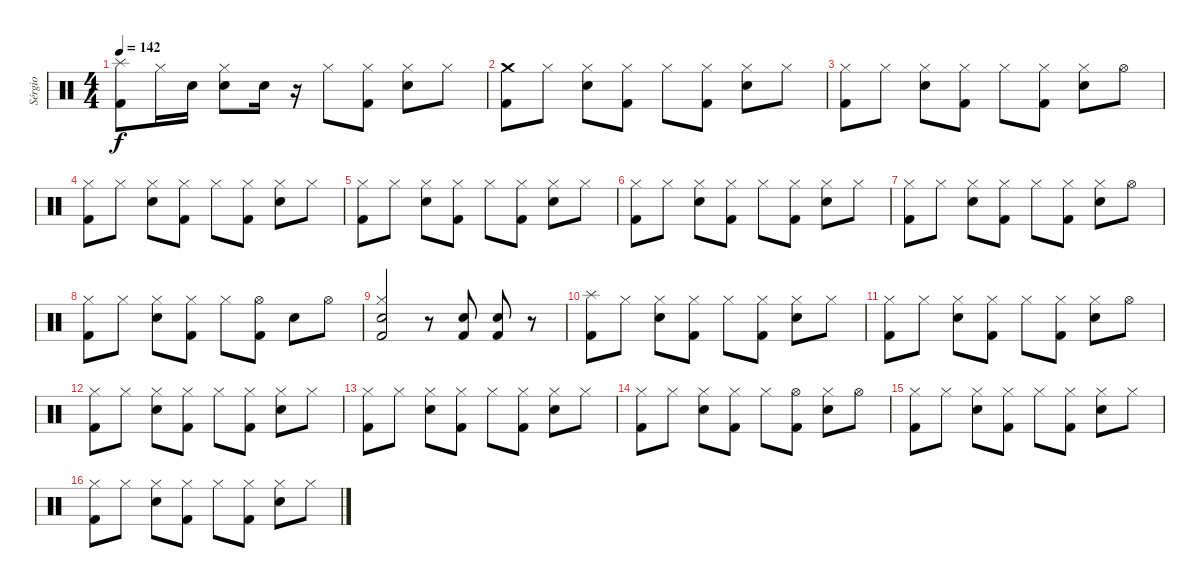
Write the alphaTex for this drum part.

\track ("Sérgio" "Sérgio") {instrument percussion}
\staff {score}
\articulation defaults
\ts (4 4)
\tempo 142
\clef neutral
\ks c
("Splash (hit)" "Kick (hit) 2").8{dy f} "Hi-Hat (closed)".16 "Snare (hit) 2".16 ("Hi-Hat (closed)" "Snare (hit) 2").8 "Snare (hit) 2".16 r.16 "Hi-Hat (closed)".8 ("Hi-Hat (closed)" "Kick (hit) 2").8 ("Hi-Hat (closed)" "Snare (hit) 2").8 "Hi-Hat (closed)".8 |
("Crash medium (hit)" "Kick (hit) 2").8 "Hi-Hat (closed)".8 ("Hi-Hat (closed)" "Snare (hit) 2").8 ("Hi-Hat (closed)" "Kick (hit) 2").8 "Hi-Hat (closed)".8 ("Hi-Hat (closed)" "Kick (hit) 2").8 ("Hi-Hat (closed)" "Snare (hit) 2").8 "Hi-Hat (closed)".8 |
("Hi-Hat (closed)" "Kick (hit) 2").8 "Hi-Hat (closed)".8 ("Hi-Hat (closed)" "Snare (hit) 2").8 ("Hi-Hat (closed)" "Kick (hit) 2").8 "Hi-Hat (closed)".8 ("Hi-Hat (closed)" "Kick (hit) 2").8 ("Hi-Hat (closed)" "Snare (hit) 2").8 "Hi-Hat (open)".8 |
("Hi-Hat (closed)" "Kick (hit) 2").8 "Hi-Hat (closed)".8 ("Hi-Hat (closed)" "Snare (hit) 2").8 ("Hi-Hat (closed)" "Kick (hit) 2").8 "Hi-Hat (closed)".8 ("Hi-Hat (closed)" "Kick (hit) 2").8 ("Hi-Hat (closed)" "Snare (hit) 2").8 "Hi-Hat (closed)".8 |
("Hi-Hat (closed)" "Kick (hit) 2").8 "Hi-Hat (closed)".8 ("Hi-Hat (closed)" "Snare (hit) 2").8 ("Hi-Hat (closed)" "Kick (hit) 2").8 "Hi-Hat (closed)".8 ("Hi-Hat (closed)" "Kick (hit) 2").8 ("Hi-Hat (closed)" "Snare (hit) 2").8 "Hi-Hat (closed)".8 |
("Hi-Hat (closed)" "Kick (hit) 2").8 "Hi-Hat (closed)".8 ("Hi-Hat (closed)" "Snare (hit) 2").8 ("Hi-Hat (closed)" "Kick (hit) 2").8 "Hi-Hat (closed)".8 ("Hi-Hat (closed)" "Kick (hit) 2").8 ("Hi-Hat (closed)" "Snare (hit) 2").8 "Hi-Hat (closed)".8 |
("Hi-Hat (closed)" "Kick (hit) 2").8 "Hi-Hat (closed)".8 ("Hi-Hat (closed)" "Snare (hit) 2").8 ("Hi-Hat (closed)" "Kick (hit) 2").8 "Hi-Hat (closed)".8 ("Hi-Hat (closed)" "Kick (hit) 2").8 ("Hi-Hat (closed)" "Snare (hit) 2").8 "Hi-Hat (open)".8 |
("Hi-Hat (closed)" "Kick (hit) 2").8 "Hi-Hat (closed)".8 ("Hi-Hat (closed)" "Snare (hit) 2").8 ("Hi-Hat (closed)" "Kick (hit) 2").8 "Hi-Hat (closed)".8 ("Hi-Hat (open)" "Kick (hit) 2").8 "Snare (hit) 2".8 "Hi-Hat (open)".8 |
("Hi-Hat (closed)" "Snare (hit) 2" "Kick (hit) 2").2 r.8 ("Snare (hit) 2" "Kick (hit) 2").8 ("Snare (hit) 2" "Kick (hit) 2").8 r.8 |
("Splash (hit)" "Kick (hit) 2").8 "Hi-Hat (closed)".8 ("Hi-Hat (closed)" "Snare (hit) 2").8 ("Hi-Hat (closed)" "Kick (hit) 2").8 "Hi-Hat (closed)".8 ("Hi-Hat (closed)" "Kick (hit) 2").8 ("Hi-Hat (closed)" "Snare (hit) 2").8 "Hi-Hat (closed)".8 |
("Hi-Hat (closed)" "Kick (hit) 2").8 "Hi-Hat (closed)".8 ("Hi-Hat (closed)" "Snare (hit) 2").8 ("Hi-Hat (closed)" "Kick (hit) 2").8 "Hi-Hat (closed)".8 ("Hi-Hat (closed)" "Kick (hit) 2").8 ("Hi-Hat (closed)" "Snare (hit) 2").8 "Hi-Hat (open)".8 |
("Hi-Hat (closed)" "Kick (hit) 2").8 "Hi-Hat (closed)".8 ("Hi-Hat (closed)" "Snare (hit) 2").8 ("Hi-Hat (closed)" "Kick (hit) 2").8 "Hi-Hat (closed)".8 ("Hi-Hat (closed)" "Kick (hit) 2").8 ("Hi-Hat (closed)" "Snare (hit) 2").8 "Hi-Hat (closed)".8 |
("Hi-Hat (closed)" "Kick (hit) 2").8 "Hi-Hat (closed)".8 ("Hi-Hat (closed)" "Snare (hit) 2").8 ("Hi-Hat (closed)" "Kick (hit) 2").8 "Hi-Hat (closed)".8 ("Hi-Hat (closed)" "Kick (hit) 2").8 ("Hi-Hat (closed)" "Snare (hit) 2").8 "Hi-Hat (closed)".8 |
("Hi-Hat (closed)" "Kick (hit) 2").8 "Hi-Hat (closed)".8 ("Hi-Hat (closed)" "Snare (hit) 2").8 ("Hi-Hat (closed)" "Kick (hit) 2").8 "Hi-Hat (closed)".8 ("Hi-Hat (open)" "Kick (hit) 2").8 ("Hi-Hat (closed)" "Snare (hit) 2").8 "Hi-Hat (open)".8 |
("Hi-Hat (closed)" "Kick (hit) 2").8 "Hi-Hat (closed)".8 ("Hi-Hat (closed)" "Snare (hit) 2").8 ("Hi-Hat (closed)" "Kick (hit) 2").8 "Hi-Hat (closed)".8 ("Hi-Hat (closed)" "Kick (hit) 2").8 ("Hi-Hat (closed)" "Snare (hit) 2").8 "Hi-Hat (closed)".8 |
("Hi-Hat (closed)" "Kick (hit) 2").8 "Hi-Hat (closed)".8 ("Hi-Hat (closed)" "Snare (hit) 2").8 ("Hi-Hat (closed)" "Kick (hit) 2").8 "Hi-Hat (closed)".8 ("Hi-Hat (closed)" "Kick (hit) 2").8 ("Hi-Hat (closed)" "Snare (hit) 2").8 "Hi-Hat (closed)".8
